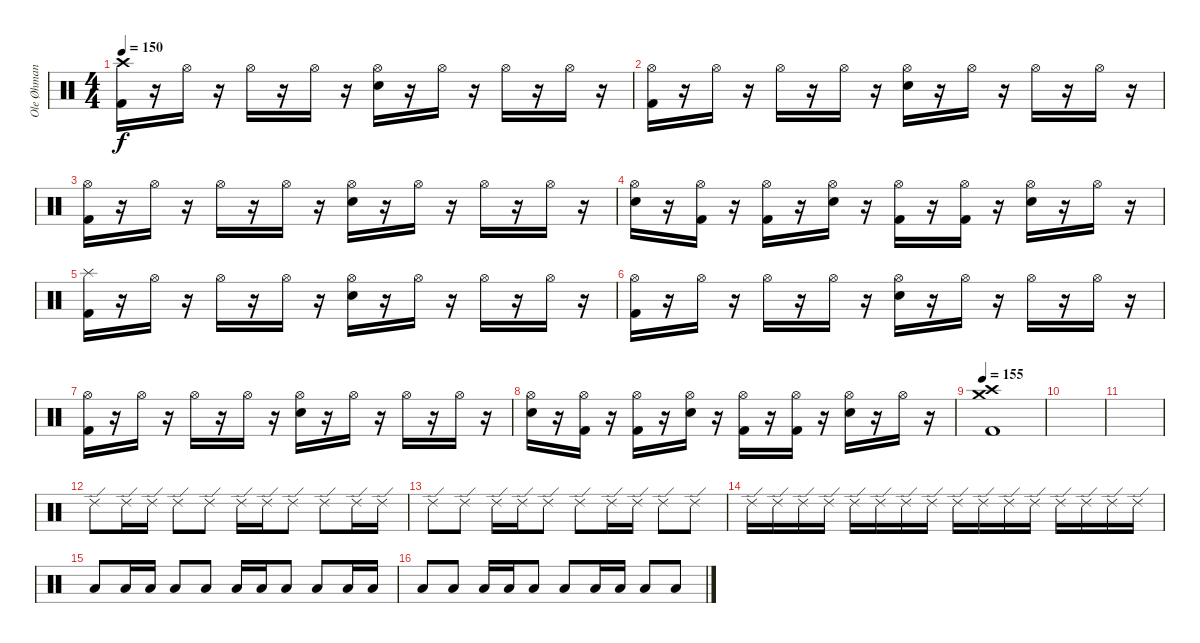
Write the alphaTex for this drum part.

\track ("Ole Øhman (Trommur)" "Ole Øhman ") {instrument percussion}
\staff {score}
\articulation defaults
\ts (4 4)
\tempo 150
\clef neutral
\ks c
("Crash high (hit)" "Kick (hit) 2").16{dy f} r.16 "Hi-Hat (open)".16 r.16 "Hi-Hat (open)".16 r.16 "Hi-Hat (open)".16 r.16 ("Hi-Hat (open)" "Electric Snare (hit)").16 r.16 "Hi-Hat (open)".16 r.16 "Hi-Hat (open)".16 r.16 "Hi-Hat (open)".16 r.16 |
("Hi-Hat (open)" "Kick (hit) 2").16 r.16 "Hi-Hat (open)".16 r.16 "Hi-Hat (open)".16 r.16 "Hi-Hat (open)".16 r.16 ("Hi-Hat (open)" "Electric Snare (hit)").16 r.16 "Hi-Hat (open)".16 r.16 "Hi-Hat (open)".16 r.16 "Hi-Hat (open)".16 r.16 |
("Hi-Hat (open)" "Kick (hit) 2").16 r.16 "Hi-Hat (open)".16 r.16 "Hi-Hat (open)".16 r.16 "Hi-Hat (open)".16 r.16 ("Hi-Hat (open)" "Electric Snare (hit)").16 r.16 "Hi-Hat (open)".16 r.16 "Hi-Hat (open)".16 r.16 "Hi-Hat (open)".16 r.16 |
("Hi-Hat (open)" "Electric Snare (hit)").16 r.16 ("Hi-Hat (open)" "Kick (hit) 2").16 r.16 ("Hi-Hat (open)" "Kick (hit) 2").16 r.16 ("Hi-Hat (open)" "Electric Snare (hit)").16 r.16 ("Hi-Hat (open)" "Kick (hit) 2").16 r.16 ("Hi-Hat (open)" "Kick (hit) 2").16 r.16 ("Hi-Hat (open)" "Electric Snare (hit)").16 r.16 "Hi-Hat (open)".16 r.16 |
("Splash (hit)" "Kick (hit) 2").16 r.16 "Hi-Hat (open)".16 r.16 "Hi-Hat (open)".16 r.16 "Hi-Hat (open)".16 r.16 ("Hi-Hat (open)" "Electric Snare (hit)").16 r.16 "Hi-Hat (open)".16 r.16 "Hi-Hat (open)".16 r.16 "Hi-Hat (open)".16 r.16 |
("Hi-Hat (open)" "Kick (hit) 2").16 r.16 "Hi-Hat (open)".16 r.16 "Hi-Hat (open)".16 r.16 "Hi-Hat (open)".16 r.16 ("Hi-Hat (open)" "Electric Snare (hit)").16 r.16 "Hi-Hat (open)".16 r.16 "Hi-Hat (open)".16 r.16 "Hi-Hat (open)".16 r.16 |
("Hi-Hat (open)" "Kick (hit) 2").16 r.16 "Hi-Hat (open)".16 r.16 "Hi-Hat (open)".16 r.16 "Hi-Hat (open)".16 r.16 ("Hi-Hat (open)" "Electric Snare (hit)").16 r.16 "Hi-Hat (open)".16 r.16 "Hi-Hat (open)".16 r.16 "Hi-Hat (open)".16 r.16 |
("Hi-Hat (open)" "Electric Snare (hit)").16 r.16 ("Hi-Hat (open)" "Kick (hit) 2").16 r.16 ("Hi-Hat (open)" "Kick (hit) 2").16 r.16 ("Hi-Hat (open)" "Electric Snare (hit)").16 r.16 ("Hi-Hat (open)" "Kick (hit) 2").16 r.16 ("Hi-Hat (open)" "Kick (hit) 2").16 r.16 ("Hi-Hat (open)" "Electric Snare (hit)").16 r.16 "Hi-Hat (open)".16 r.16 |
\tempo 155
("Crash medium (hit)" "Crash high (hit)" "Kick (hit) 2").1 |
|
|
"Ride (edge) 2".8 "Ride (edge) 2".16 "Ride (edge) 2".16 "Ride (edge) 2".8 "Ride (edge) 2".8 "Ride (edge) 2".16 "Ride (edge) 2".16 "Ride (edge) 2".8 "Ride (edge) 2".8 "Ride (edge) 2".16 "Ride (edge) 2".16 |
"Ride (edge) 2".8 "Ride (edge) 2".8 "Ride (edge) 2".16 "Ride (edge) 2".16 "Ride (edge) 2".8 "Ride (edge) 2".8 "Ride (edge) 2".16 "Ride (edge) 2".16 "Ride (edge) 2".8 "Ride (edge) 2".8 |
"Ride (edge) 2".16 "Ride (edge) 2".16 "Ride (edge) 2".16 "Ride (edge) 2".16 "Ride (edge) 2".16 "Ride (edge) 2".16 "Ride (edge) 2".16 "Ride (edge) 2".16 "Ride (edge) 2".16 "Ride (edge) 2".16 "Ride (edge) 2".16 "Ride (edge) 2".16 "Ride (edge) 2".16 "Ride (edge) 2".16 "Ride (edge) 2".16 "Ride (edge) 2".16 |
"Low Tom (hit)".8 "Low Tom (hit)".16 "Low Tom (hit)".16 "Low Tom (hit)".8 "Low Tom (hit)".8 "Low Tom (hit)".16 "Low Tom (hit)".16 "Low Tom (hit)".8 "Low Tom (hit)".8 "Low Tom (hit)".16 "Low Tom (hit)".16 |
"Low Tom (hit)".8 "Low Tom (hit)".8 "Low Tom (hit)".16 "Low Tom (hit)".16 "Low Tom (hit)".8 "Low Tom (hit)".8 "Low Tom (hit)".16 "Low Tom (hit)".16 "Low Tom (hit)".8 "Low Tom (hit)".8
